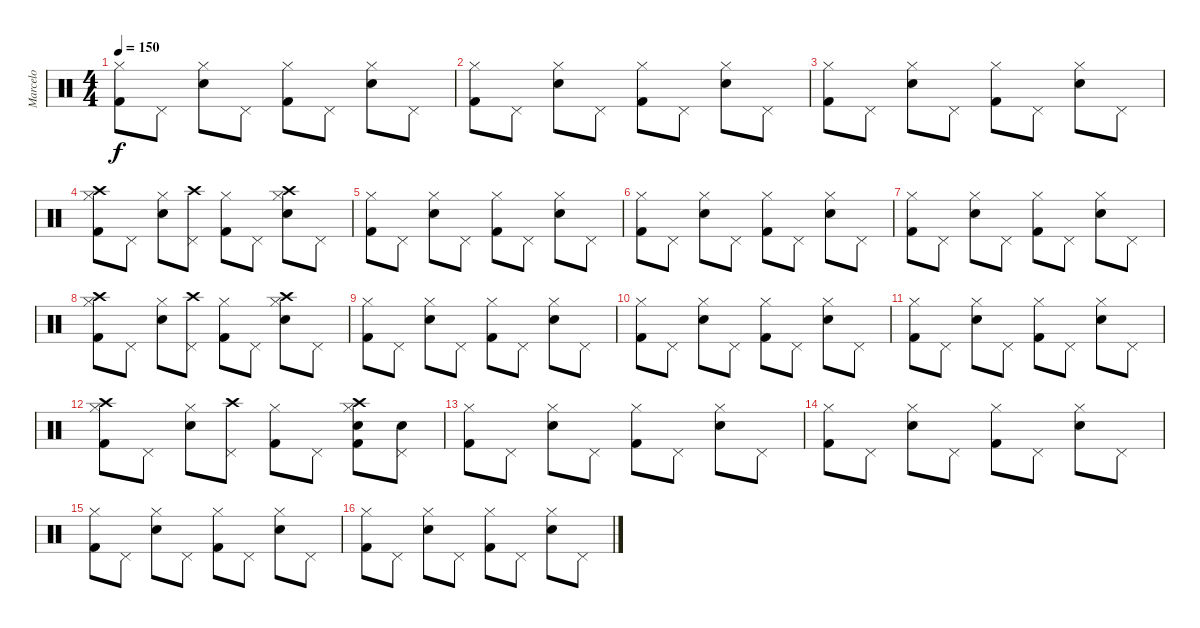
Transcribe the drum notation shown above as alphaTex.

\track ("Marcelo" "Marcelo") {instrument percussion}
\staff {score}
\articulation defaults
\ts (4 4)
\tempo 150
\clef neutral
\ks c
("Hi-Hat (closed)" "Kick (hit) 2").8{dy f} "Pedal Hi-Hat (hit)".8 ("Hi-Hat (closed)" "Electric Snare (hit)").8 "Pedal Hi-Hat (hit)".8 ("Hi-Hat (closed)" "Kick (hit) 2").8 "Pedal Hi-Hat (hit)".8 ("Hi-Hat (closed)" "Electric Snare (hit)").8 "Pedal Hi-Hat (hit)".8 |
("Hi-Hat (closed)" "Kick (hit) 2").8 "Pedal Hi-Hat (hit)".8 ("Hi-Hat (closed)" "Electric Snare (hit)").8 "Pedal Hi-Hat (hit)".8 ("Hi-Hat (closed)" "Kick (hit) 2").8 "Pedal Hi-Hat (hit)".8 ("Hi-Hat (closed)" "Electric Snare (hit)").8 "Pedal Hi-Hat (hit)".8 |
("Hi-Hat (closed)" "Kick (hit) 2").8 "Pedal Hi-Hat (hit)".8 ("Hi-Hat (closed)" "Electric Snare (hit)").8 "Pedal Hi-Hat (hit)".8 ("Hi-Hat (closed)" "Kick (hit) 2").8 "Pedal Hi-Hat (hit)".8 ("Hi-Hat (closed)" "Electric Snare (hit)").8 "Pedal Hi-Hat (hit)".8 |
("Hi-Hat (closed)" "Kick (hit) 2" "Crash high (hit)").8 "Pedal Hi-Hat (hit)".8 ("Hi-Hat (closed)" "Electric Snare (hit)").8 ("Pedal Hi-Hat (hit)" "Crash high (hit)").8 ("Hi-Hat (closed)" "Kick (hit) 2").8 "Pedal Hi-Hat (hit)".8 ("Hi-Hat (closed)" "Electric Snare (hit)" "Crash high (hit)").8 "Pedal Hi-Hat (hit)".8 |
("Hi-Hat (closed)" "Kick (hit) 2").8 "Pedal Hi-Hat (hit)".8 ("Hi-Hat (closed)" "Electric Snare (hit)").8 "Pedal Hi-Hat (hit)".8 ("Hi-Hat (closed)" "Kick (hit) 2").8 "Pedal Hi-Hat (hit)".8 ("Hi-Hat (closed)" "Electric Snare (hit)").8 "Pedal Hi-Hat (hit)".8 |
("Hi-Hat (closed)" "Kick (hit) 2").8 "Pedal Hi-Hat (hit)".8 ("Hi-Hat (closed)" "Electric Snare (hit)").8 "Pedal Hi-Hat (hit)".8 ("Hi-Hat (closed)" "Kick (hit) 2").8 "Pedal Hi-Hat (hit)".8 ("Hi-Hat (closed)" "Electric Snare (hit)").8 "Pedal Hi-Hat (hit)".8 |
("Hi-Hat (closed)" "Kick (hit) 2").8 "Pedal Hi-Hat (hit)".8 ("Hi-Hat (closed)" "Electric Snare (hit)").8 "Pedal Hi-Hat (hit)".8 ("Hi-Hat (closed)" "Kick (hit) 2").8 "Pedal Hi-Hat (hit)".8 ("Hi-Hat (closed)" "Electric Snare (hit)").8 "Pedal Hi-Hat (hit)".8 |
("Hi-Hat (closed)" "Kick (hit) 2" "Crash high (hit)").8 "Pedal Hi-Hat (hit)".8 ("Hi-Hat (closed)" "Electric Snare (hit)").8 ("Pedal Hi-Hat (hit)" "Crash high (hit)").8 ("Hi-Hat (closed)" "Kick (hit) 2").8 "Pedal Hi-Hat (hit)".8 ("Hi-Hat (closed)" "Electric Snare (hit)" "Crash high (hit)").8 "Pedal Hi-Hat (hit)".8 |
("Hi-Hat (closed)" "Kick (hit) 2").8 "Pedal Hi-Hat (hit)".8 ("Hi-Hat (closed)" "Electric Snare (hit)").8 "Pedal Hi-Hat (hit)".8 ("Hi-Hat (closed)" "Kick (hit) 2").8 "Pedal Hi-Hat (hit)".8 ("Hi-Hat (closed)" "Electric Snare (hit)").8 "Pedal Hi-Hat (hit)".8 |
("Hi-Hat (closed)" "Kick (hit) 2").8 "Pedal Hi-Hat (hit)".8 ("Hi-Hat (closed)" "Electric Snare (hit)").8 "Pedal Hi-Hat (hit)".8 ("Hi-Hat (closed)" "Kick (hit) 2").8 "Pedal Hi-Hat (hit)".8 ("Hi-Hat (closed)" "Electric Snare (hit)").8 "Pedal Hi-Hat (hit)".8 |
("Hi-Hat (closed)" "Kick (hit) 2").8 "Pedal Hi-Hat (hit)".8 ("Hi-Hat (closed)" "Electric Snare (hit)").8 "Pedal Hi-Hat (hit)".8 ("Hi-Hat (closed)" "Kick (hit) 2").8 "Pedal Hi-Hat (hit)".8 ("Hi-Hat (closed)" "Electric Snare (hit)").8 "Pedal Hi-Hat (hit)".8 |
("Hi-Hat (closed)" "Kick (hit) 2" "Crash high (hit)").8 "Pedal Hi-Hat (hit)".8 ("Hi-Hat (closed)" "Electric Snare (hit)").8 ("Pedal Hi-Hat (hit)" "Crash high (hit)").8 ("Hi-Hat (closed)" "Kick (hit) 2").8 "Pedal Hi-Hat (hit)".8 ("Hi-Hat (closed)" "Electric Snare (hit)" "Crash high (hit)" "Kick (hit) 2").8 ("Pedal Hi-Hat (hit)" "Electric Snare (hit)").8 |
("Hi-Hat (closed)" "Kick (hit) 2").8 "Pedal Hi-Hat (hit)".8 ("Hi-Hat (closed)" "Electric Snare (hit)").8 "Pedal Hi-Hat (hit)".8 ("Hi-Hat (closed)" "Kick (hit) 2").8 "Pedal Hi-Hat (hit)".8 ("Hi-Hat (closed)" "Electric Snare (hit)").8 "Pedal Hi-Hat (hit)".8 |
("Hi-Hat (closed)" "Kick (hit) 2").8 "Pedal Hi-Hat (hit)".8 ("Hi-Hat (closed)" "Electric Snare (hit)").8 "Pedal Hi-Hat (hit)".8 ("Hi-Hat (closed)" "Kick (hit) 2").8 "Pedal Hi-Hat (hit)".8 ("Hi-Hat (closed)" "Electric Snare (hit)").8 "Pedal Hi-Hat (hit)".8 |
("Hi-Hat (closed)" "Kick (hit) 2").8 "Pedal Hi-Hat (hit)".8 ("Hi-Hat (closed)" "Electric Snare (hit)").8 "Pedal Hi-Hat (hit)".8 ("Hi-Hat (closed)" "Kick (hit) 2").8 "Pedal Hi-Hat (hit)".8 ("Hi-Hat (closed)" "Electric Snare (hit)").8 "Pedal Hi-Hat (hit)".8 |
("Hi-Hat (closed)" "Kick (hit) 2").8 "Pedal Hi-Hat (hit)".8 ("Hi-Hat (closed)" "Electric Snare (hit)").8 "Pedal Hi-Hat (hit)".8 ("Hi-Hat (closed)" "Kick (hit) 2").8 "Pedal Hi-Hat (hit)".8 ("Hi-Hat (closed)" "Electric Snare (hit)").8 "Pedal Hi-Hat (hit)".8
